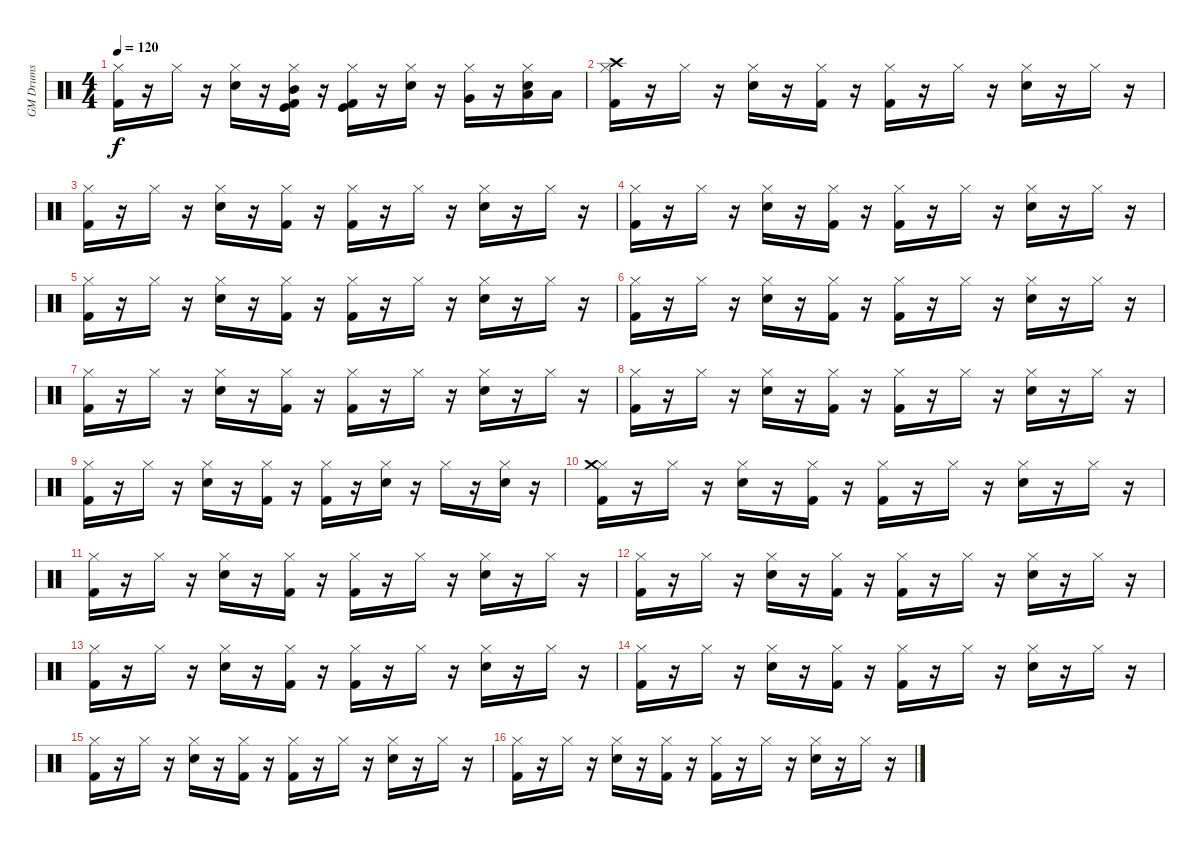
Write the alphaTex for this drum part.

\track ("GM Drums" "GM Drums") {instrument percussion}
\staff {score}
\articulation defaults
\ts (4 4)
\tempo 120
\clef neutral
\ks c
("Kick (hit) 2" "Hi-Hat (closed)").16{dy f} r.16 "Hi-Hat (closed)".16 r.16 ("Snare (hit) 2" "Hi-Hat (closed)").16 r.16 ("Kick (hit)" "Kick (hit) 2" "Hi-Hat (closed)" "Mid Tom (hit)").16 r.16 ("Kick (hit)" "Kick (hit) 2" "Hi-Hat (closed)").16 r.16 ("Snare (hit) 2" "Hi-Hat (closed)").16 r.16 ("Hi-Hat (closed)" "Very Low Tom (hit)").16 r.16 ("Snare (hit) 2" "Hi-Hat (closed)" "Low Tom (hit)").16 "Low Tom (hit)".16 |
("Kick (hit) 2" "Hi-Hat (closed)" "Crash high (hit)").16 r.16 "Hi-Hat (closed)".16 r.16 ("Snare (hit) 2" "Hi-Hat (closed)").16 r.16 ("Kick (hit) 2" "Hi-Hat (closed)").16 r.16 ("Kick (hit) 2" "Hi-Hat (closed)").16 r.16 "Hi-Hat (closed)".16 r.16 ("Snare (hit) 2" "Hi-Hat (closed)").16 r.16 "Hi-Hat (closed)".16 r.16 |
("Kick (hit) 2" "Hi-Hat (closed)").16 r.16 "Hi-Hat (closed)".16 r.16 ("Snare (hit) 2" "Hi-Hat (closed)").16 r.16 ("Kick (hit) 2" "Hi-Hat (closed)").16 r.16 ("Kick (hit) 2" "Hi-Hat (closed)").16 r.16 "Hi-Hat (closed)".16 r.16 ("Snare (hit) 2" "Hi-Hat (closed)").16 r.16 "Hi-Hat (closed)".16 r.16 |
("Kick (hit) 2" "Hi-Hat (closed)").16 r.16 "Hi-Hat (closed)".16 r.16 ("Snare (hit) 2" "Hi-Hat (closed)").16 r.16 ("Kick (hit) 2" "Hi-Hat (closed)").16 r.16 ("Kick (hit) 2" "Hi-Hat (closed)").16 r.16 "Hi-Hat (closed)".16 r.16 ("Snare (hit) 2" "Hi-Hat (closed)").16 r.16 "Hi-Hat (closed)".16 r.16 |
("Kick (hit) 2" "Hi-Hat (closed)").16 r.16 "Hi-Hat (closed)".16 r.16 ("Snare (hit) 2" "Hi-Hat (closed)").16 r.16 ("Kick (hit) 2" "Hi-Hat (closed)").16 r.16 ("Kick (hit) 2" "Hi-Hat (closed)").16 r.16 "Hi-Hat (closed)".16 r.16 ("Snare (hit) 2" "Hi-Hat (closed)").16 r.16 "Hi-Hat (closed)".16 r.16 |
("Kick (hit) 2" "Hi-Hat (closed)").16 r.16 "Hi-Hat (closed)".16 r.16 ("Snare (hit) 2" "Hi-Hat (closed)").16 r.16 ("Kick (hit) 2" "Hi-Hat (closed)").16 r.16 ("Kick (hit) 2" "Hi-Hat (closed)").16 r.16 "Hi-Hat (closed)".16 r.16 ("Snare (hit) 2" "Hi-Hat (closed)").16 r.16 "Hi-Hat (closed)".16 r.16 |
("Kick (hit) 2" "Hi-Hat (closed)").16 r.16 "Hi-Hat (closed)".16 r.16 ("Snare (hit) 2" "Hi-Hat (closed)").16 r.16 ("Kick (hit) 2" "Hi-Hat (closed)").16 r.16 ("Kick (hit) 2" "Hi-Hat (closed)").16 r.16 "Hi-Hat (closed)".16 r.16 ("Snare (hit) 2" "Hi-Hat (closed)").16 r.16 "Hi-Hat (closed)".16 r.16 |
("Kick (hit) 2" "Hi-Hat (closed)").16 r.16 "Hi-Hat (closed)".16 r.16 ("Snare (hit) 2" "Hi-Hat (closed)").16 r.16 ("Kick (hit) 2" "Hi-Hat (closed)").16 r.16 ("Kick (hit) 2" "Hi-Hat (closed)").16 r.16 "Hi-Hat (closed)".16 r.16 ("Snare (hit) 2" "Hi-Hat (closed)").16 r.16 "Hi-Hat (closed)".16 r.16 |
("Kick (hit) 2" "Hi-Hat (closed)").16 r.16 "Hi-Hat (closed)".16 r.16 ("Snare (hit) 2" "Hi-Hat (closed)").16 r.16 ("Kick (hit) 2" "Hi-Hat (closed)").16 r.16 ("Kick (hit) 2" "Hi-Hat (closed)").16 r.16 ("Snare (hit) 2" "Hi-Hat (closed)").16 r.16 "Hi-Hat (closed)".16 r.16 ("Snare (hit) 2" "Hi-Hat (closed)").16 r.16 |
("Kick (hit) 2" "Hi-Hat (closed)" "Crash medium (hit)").16 r.16 "Hi-Hat (closed)".16 r.16 ("Snare (hit) 2" "Hi-Hat (closed)").16 r.16 ("Kick (hit) 2" "Hi-Hat (closed)").16 r.16 ("Kick (hit) 2" "Hi-Hat (closed)").16 r.16 "Hi-Hat (closed)".16 r.16 ("Snare (hit) 2" "Hi-Hat (closed)").16 r.16 "Hi-Hat (closed)".16 r.16 |
("Kick (hit) 2" "Hi-Hat (closed)").16 r.16 "Hi-Hat (closed)".16 r.16 ("Snare (hit) 2" "Hi-Hat (closed)").16 r.16 ("Kick (hit) 2" "Hi-Hat (closed)").16 r.16 ("Kick (hit) 2" "Hi-Hat (closed)").16 r.16 "Hi-Hat (closed)".16 r.16 ("Snare (hit) 2" "Hi-Hat (closed)").16 r.16 "Hi-Hat (closed)".16 r.16 |
("Kick (hit) 2" "Hi-Hat (closed)").16 r.16 "Hi-Hat (closed)".16 r.16 ("Snare (hit) 2" "Hi-Hat (closed)").16 r.16 ("Kick (hit) 2" "Hi-Hat (closed)").16 r.16 ("Kick (hit) 2" "Hi-Hat (closed)").16 r.16 "Hi-Hat (closed)".16 r.16 ("Snare (hit) 2" "Hi-Hat (closed)").16 r.16 "Hi-Hat (closed)".16 r.16 |
("Kick (hit) 2" "Hi-Hat (closed)").16 r.16 "Hi-Hat (closed)".16 r.16 ("Snare (hit) 2" "Hi-Hat (closed)").16 r.16 ("Kick (hit) 2" "Hi-Hat (closed)").16 r.16 ("Kick (hit) 2" "Hi-Hat (closed)").16 r.16 "Hi-Hat (closed)".16 r.16 ("Snare (hit) 2" "Hi-Hat (closed)").16 r.16 "Hi-Hat (closed)".16 r.16 |
("Kick (hit) 2" "Hi-Hat (closed)").16 r.16 "Hi-Hat (closed)".16 r.16 ("Snare (hit) 2" "Hi-Hat (closed)").16 r.16 ("Kick (hit) 2" "Hi-Hat (closed)").16 r.16 ("Kick (hit) 2" "Hi-Hat (closed)").16 r.16 "Hi-Hat (closed)".16 r.16 ("Snare (hit) 2" "Hi-Hat (closed)").16 r.16 "Hi-Hat (closed)".16 r.16 |
("Kick (hit) 2" "Hi-Hat (closed)").16 r.16 "Hi-Hat (closed)".16 r.16 ("Snare (hit) 2" "Hi-Hat (closed)").16 r.16 ("Kick (hit) 2" "Hi-Hat (closed)").16 r.16 ("Kick (hit) 2" "Hi-Hat (closed)").16 r.16 "Hi-Hat (closed)".16 r.16 ("Snare (hit) 2" "Hi-Hat (closed)").16 r.16 "Hi-Hat (closed)".16 r.16 |
("Kick (hit) 2" "Hi-Hat (closed)").16 r.16 "Hi-Hat (closed)".16 r.16 ("Snare (hit) 2" "Hi-Hat (closed)").16 r.16 ("Kick (hit) 2" "Hi-Hat (closed)").16 r.16 ("Kick (hit) 2" "Hi-Hat (closed)").16 r.16 "Hi-Hat (closed)".16 r.16 ("Snare (hit) 2" "Hi-Hat (closed)").16 r.16 "Hi-Hat (closed)".16 r.16
